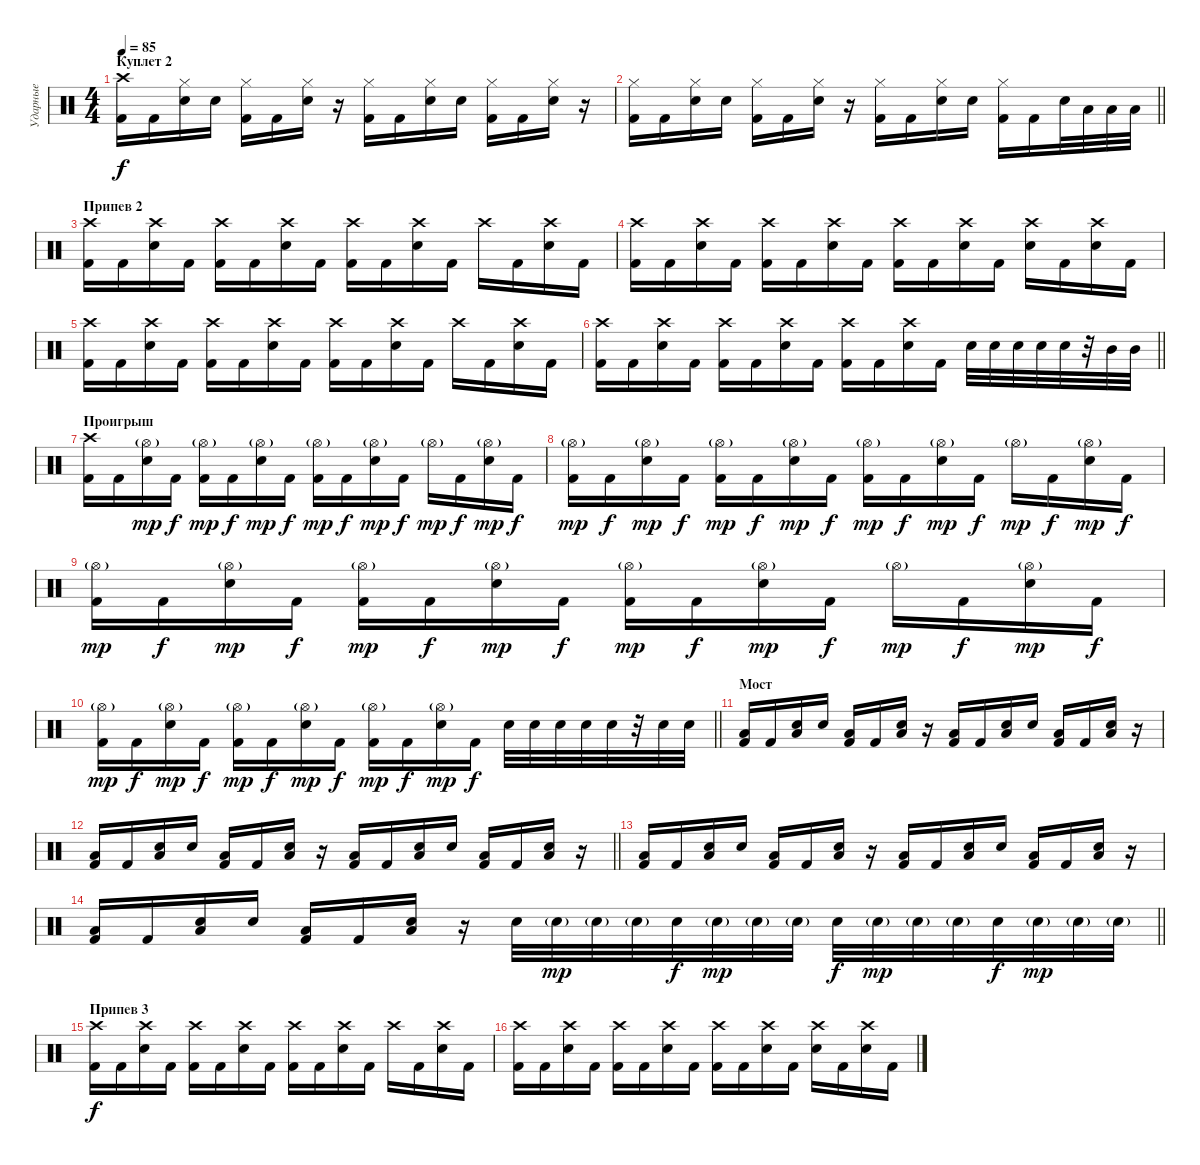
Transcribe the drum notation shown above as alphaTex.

\track ("Ударные" "Ударные") {instrument percussion}
\staff {score}
\articulation defaults
\ts (4 4)
\section ("" "Куплет 2")
\tempo 85
\clef neutral
\ks c
("Crash high (hit)" "Kick (hit) 2").16{dy f} "Kick (hit) 2".16 ("Hi-Hat (closed)" "Electric Snare (hit)").16 "Electric Snare (hit)".16 ("Hi-Hat (closed)" "Kick (hit) 2").16 "Kick (hit) 2".16 ("Hi-Hat (closed)" "Electric Snare (hit)").16 r.16 ("Hi-Hat (closed)" "Kick (hit) 2").16 "Kick (hit) 2".16 ("Hi-Hat (closed)" "Electric Snare (hit)").16 "Electric Snare (hit)".16 ("Hi-Hat (closed)" "Kick (hit) 2").16 "Kick (hit) 2".16 ("Hi-Hat (closed)" "Electric Snare (hit)").16 r.16 |
\barLineRight lightlight
("Hi-Hat (closed)" "Kick (hit) 2").16 "Kick (hit) 2".16 ("Hi-Hat (closed)" "Electric Snare (hit)").16 "Electric Snare (hit)".16 ("Hi-Hat (closed)" "Kick (hit) 2").16 "Kick (hit) 2".16 ("Hi-Hat (closed)" "Electric Snare (hit)").16 r.16 ("Hi-Hat (closed)" "Kick (hit) 2").16 "Kick (hit) 2".16 ("Hi-Hat (closed)" "Electric Snare (hit)").16 "Electric Snare (hit)".16 ("Hi-Hat (closed)" "Kick (hit) 2").16 "Kick (hit) 2".16 "Electric Snare (hit)".32 "Low Tom (hit)".32 "Low Floor Tom (hit)".32 "Low Floor Tom (hit)".32 |
\section ("" "Припев 2")
("Crash high (hit)" "Kick (hit) 2").16 "Kick (hit) 2".16 ("Crash high (hit)" "Electric Snare (hit)").16 "Kick (hit) 2".16 ("Crash high (hit)" "Kick (hit) 2").16 "Kick (hit) 2".16 ("Crash high (hit)" "Electric Snare (hit)").16 "Kick (hit) 2".16 ("Crash high (hit)" "Kick (hit) 2").16 "Kick (hit) 2".16 ("Crash high (hit)" "Electric Snare (hit)").16 "Kick (hit) 2".16 "Crash high (hit)".16 "Kick (hit) 2".16 ("Crash high (hit)" "Electric Snare (hit)").16 "Kick (hit) 2".16 |
("Crash high (hit)" "Kick (hit) 2").16 "Kick (hit) 2".16 ("Crash high (hit)" "Electric Snare (hit)").16 "Kick (hit) 2".16 ("Crash high (hit)" "Kick (hit) 2").16 "Kick (hit) 2".16 ("Crash high (hit)" "Electric Snare (hit)").16 "Kick (hit) 2".16 ("Crash high (hit)" "Kick (hit) 2").16 "Kick (hit) 2".16 ("Crash high (hit)" "Electric Snare (hit)").16 "Kick (hit) 2".16 ("Crash high (hit)" "Electric Snare (hit)").16 "Kick (hit) 2".16 ("Crash high (hit)" "Electric Snare (hit)").16 "Kick (hit) 2".16 |
("Crash high (hit)" "Kick (hit) 2").16 "Kick (hit) 2".16 ("Crash high (hit)" "Electric Snare (hit)").16 "Kick (hit) 2".16 ("Crash high (hit)" "Kick (hit) 2").16 "Kick (hit) 2".16 ("Crash high (hit)" "Electric Snare (hit)").16 "Kick (hit) 2".16 ("Crash high (hit)" "Kick (hit) 2").16 "Kick (hit) 2".16 ("Crash high (hit)" "Electric Snare (hit)").16 "Kick (hit) 2".16 "Crash high (hit)".16 "Kick (hit) 2".16 ("Crash high (hit)" "Electric Snare (hit)").16 "Kick (hit) 2".16 |
\barLineRight lightlight
("Crash high (hit)" "Kick (hit) 2").16 "Kick (hit) 2".16 ("Crash high (hit)" "Electric Snare (hit)").16 "Kick (hit) 2".16 ("Crash high (hit)" "Kick (hit) 2").16 "Kick (hit) 2".16 ("Crash high (hit)" "Electric Snare (hit)").16 "Kick (hit) 2".16 ("Crash high (hit)" "Kick (hit) 2").16 "Kick (hit) 2".16 ("Crash high (hit)" "Electric Snare (hit)").16 "Kick (hit) 2".16 "Electric Snare (hit)".32 "Electric Snare (hit)".32 "Electric Snare (hit)".32 "Electric Snare (hit)".32 "Electric Snare (hit)".32 r.32 "Mid Tom (hit)".32 "Mid Tom (hit)".32 |
\section ("" "Проигрыш")
("Crash high (hit)" "Kick (hit) 2").16 "Kick (hit) 2".16 ("Hi-Hat (open)"{g} "Electric Snare (hit)").16{dy mp} "Kick (hit) 2".16{dy f} ("Hi-Hat (open)"{g} "Kick (hit) 2").16{dy mp} "Kick (hit) 2".16{dy f} ("Hi-Hat (open)"{g} "Electric Snare (hit)").16{dy mp} "Kick (hit) 2".16{dy f} ("Hi-Hat (open)"{g} "Kick (hit) 2").16{dy mp} "Kick (hit) 2".16{dy f} ("Hi-Hat (open)"{g} "Electric Snare (hit)").16{dy mp} "Kick (hit) 2".16{dy f} "Hi-Hat (open)"{g}.16{dy mp} "Kick (hit) 2".16{dy f} ("Hi-Hat (open)"{g} "Electric Snare (hit)").16{dy mp} "Kick (hit) 2".16{dy f} |
("Hi-Hat (open)"{g} "Kick (hit) 2").16{dy mp} "Kick (hit) 2".16{dy f} ("Hi-Hat (open)"{g} "Electric Snare (hit)").16{dy mp} "Kick (hit) 2".16{dy f} ("Hi-Hat (open)"{g} "Kick (hit) 2").16{dy mp} "Kick (hit) 2".16{dy f} ("Hi-Hat (open)"{g} "Electric Snare (hit)").16{dy mp} "Kick (hit) 2".16{dy f} ("Hi-Hat (open)"{g} "Kick (hit) 2").16{dy mp} "Kick (hit) 2".16{dy f} ("Hi-Hat (open)"{g} "Electric Snare (hit)").16{dy mp} "Kick (hit) 2".16{dy f} "Hi-Hat (open)"{g}.16{dy mp} "Kick (hit) 2".16{dy f} ("Hi-Hat (open)"{g} "Electric Snare (hit)").16{dy mp} "Kick (hit) 2".16{dy f} |
("Hi-Hat (open)"{g} "Kick (hit) 2").16{dy mp} "Kick (hit) 2".16{dy f} ("Hi-Hat (open)"{g} "Electric Snare (hit)").16{dy mp} "Kick (hit) 2".16{dy f} ("Hi-Hat (open)"{g} "Kick (hit) 2").16{dy mp} "Kick (hit) 2".16{dy f} ("Hi-Hat (open)"{g} "Electric Snare (hit)").16{dy mp} "Kick (hit) 2".16{dy f} ("Hi-Hat (open)"{g} "Kick (hit) 2").16{dy mp} "Kick (hit) 2".16{dy f} ("Hi-Hat (open)"{g} "Electric Snare (hit)").16{dy mp} "Kick (hit) 2".16{dy f} "Hi-Hat (open)"{g}.16{dy mp} "Kick (hit) 2".16{dy f} ("Hi-Hat (open)"{g} "Electric Snare (hit)").16{dy mp} "Kick (hit) 2".16{dy f} |
\barLineRight lightlight
("Hi-Hat (open)"{g} "Kick (hit) 2").16{dy mp} "Kick (hit) 2".16{dy f} ("Hi-Hat (open)"{g} "Electric Snare (hit)").16{dy mp} "Kick (hit) 2".16{dy f} ("Hi-Hat (open)"{g} "Kick (hit) 2").16{dy mp} "Kick (hit) 2".16{dy f} ("Hi-Hat (open)"{g} "Electric Snare (hit)").16{dy mp} "Kick (hit) 2".16{dy f} ("Hi-Hat (open)"{g} "Kick (hit) 2").16{dy mp} "Kick (hit) 2".16{dy f} ("Hi-Hat (open)"{g} "Electric Snare (hit)").16{dy mp} "Kick (hit) 2".16{dy f} "Electric Snare (hit)".32 "Electric Snare (hit)".32 "Electric Snare (hit)".32 "Electric Snare (hit)".32 "Electric Snare (hit)".32 r.32 "Electric Snare (hit)".32 "Electric Snare (hit)".32 |
\section ("" "Мост")
("Low Floor Tom (hit)" "Kick (hit) 2").16 "Kick (hit) 2".16 ("Low Floor Tom (hit)" "Electric Snare (hit)").16 "Electric Snare (hit)".16 ("Low Floor Tom (hit)" "Kick (hit) 2").16 "Kick (hit) 2".16 ("Low Floor Tom (hit)" "Electric Snare (hit)").16 r.16 ("Low Floor Tom (hit)" "Kick (hit) 2").16 "Kick (hit) 2".16 ("Low Floor Tom (hit)" "Electric Snare (hit)").16 "Electric Snare (hit)".16 ("Low Floor Tom (hit)" "Kick (hit) 2").16 "Kick (hit) 2".16 ("Low Floor Tom (hit)" "Electric Snare (hit)").16 r.16 |
\barLineRight lightlight
("Low Floor Tom (hit)" "Kick (hit) 2").16 "Kick (hit) 2".16 ("Low Floor Tom (hit)" "Electric Snare (hit)").16 "Electric Snare (hit)".16 ("Low Floor Tom (hit)" "Kick (hit) 2").16 "Kick (hit) 2".16 ("Low Floor Tom (hit)" "Electric Snare (hit)").16 r.16 ("Low Floor Tom (hit)" "Kick (hit) 2").16 "Kick (hit) 2".16 ("Low Floor Tom (hit)" "Electric Snare (hit)").16 "Electric Snare (hit)".16 ("Low Floor Tom (hit)" "Kick (hit) 2").16 "Kick (hit) 2".16 ("Low Floor Tom (hit)" "Electric Snare (hit)").16 r.16 |
("Low Floor Tom (hit)" "Kick (hit) 2").16 "Kick (hit) 2".16 ("Low Floor Tom (hit)" "Electric Snare (hit)").16 "Electric Snare (hit)".16 ("Low Floor Tom (hit)" "Kick (hit) 2").16 "Kick (hit) 2".16 ("Low Floor Tom (hit)" "Electric Snare (hit)").16 r.16 ("Low Floor Tom (hit)" "Kick (hit) 2").16 "Kick (hit) 2".16 ("Low Floor Tom (hit)" "Electric Snare (hit)").16 "Electric Snare (hit)".16 ("Low Floor Tom (hit)" "Kick (hit) 2").16 "Kick (hit) 2".16 ("Low Floor Tom (hit)" "Electric Snare (hit)").16 r.16 |
\barLineRight lightlight
("Low Floor Tom (hit)" "Kick (hit) 2").16 "Kick (hit) 2".16 ("Low Floor Tom (hit)" "Electric Snare (hit)").16 "Electric Snare (hit)".16 ("Low Floor Tom (hit)" "Kick (hit) 2").16 "Kick (hit) 2".16 ("Low Floor Tom (hit)" "Electric Snare (hit)").16 r.16 "Electric Snare (hit)".32 "Electric Snare (hit)"{g}.32{dy mp} "Electric Snare (hit)"{g}.32 "Electric Snare (hit)"{g}.32 "Electric Snare (hit)".32{dy f} "Electric Snare (hit)"{g}.32{dy mp} "Electric Snare (hit)"{g}.32 "Electric Snare (hit)"{g}.32 "Electric Snare (hit)".32{dy f} "Electric Snare (hit)"{g}.32{dy mp} "Electric Snare (hit)"{g}.32 "Electric Snare (hit)"{g}.32 "Electric Snare (hit)".32{dy f} "Electric Snare (hit)"{g}.32{dy mp} "Electric Snare (hit)"{g}.32 "Electric Snare (hit)"{g}.32 |
\section ("" "Припев 3")
("Crash high (hit)" "Kick (hit) 2").16{dy f} "Kick (hit) 2".16 ("Crash high (hit)" "Electric Snare (hit)").16 "Kick (hit) 2".16 ("Crash high (hit)" "Kick (hit) 2").16 "Kick (hit) 2".16 ("Crash high (hit)" "Electric Snare (hit)").16 "Kick (hit) 2".16 ("Crash high (hit)" "Kick (hit) 2").16 "Kick (hit) 2".16 ("Crash high (hit)" "Electric Snare (hit)").16 "Kick (hit) 2".16 "Crash high (hit)".16 "Kick (hit) 2".16 ("Crash high (hit)" "Electric Snare (hit)").16 "Kick (hit) 2".16 |
("Crash high (hit)" "Kick (hit) 2").16 "Kick (hit) 2".16 ("Crash high (hit)" "Electric Snare (hit)").16 "Kick (hit) 2".16 ("Crash high (hit)" "Kick (hit) 2").16 "Kick (hit) 2".16 ("Crash high (hit)" "Electric Snare (hit)").16 "Kick (hit) 2".16 ("Crash high (hit)" "Kick (hit) 2").16 "Kick (hit) 2".16 ("Crash high (hit)" "Electric Snare (hit)").16 "Kick (hit) 2".16 ("Crash high (hit)" "Electric Snare (hit)").16 "Kick (hit) 2".16 ("Crash high (hit)" "Electric Snare (hit)").16 "Kick (hit) 2".16
